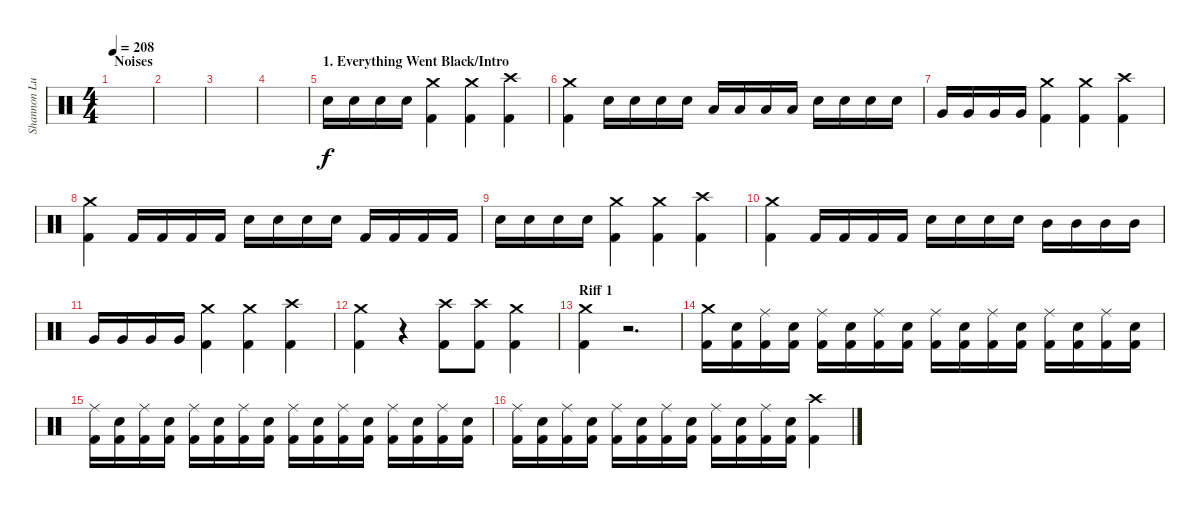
\track ("Shannon Lucas [Drums (Since 2007)]" "Shannon Lu") {instrument percussion}
\staff {score}
\articulation defaults
\ts (4 4)
\section ("" "Noises")
\tempo 208
\clef neutral
\ks c
|
|
|
|
\section ("" "1. Everything Went Black/Intro")
"Snare (hit) 2".16 "Snare (hit) 2".16 "Snare (hit) 2".16 "Snare (hit) 2".16 ("Crash medium (hit)" "Kick (hit) 2").4 ("Crash medium (hit)" "Kick (hit) 2").4 ("Crash high (hit)" "Kick (hit) 2").4 |
("Crash medium (hit)" "Kick (hit) 2").4 "Snare (hit) 2".16 "Snare (hit) 2".16 "Snare (hit) 2".16 "Snare (hit) 2".16 "Low Tom (hit)".16 "Low Tom (hit)".16 "Low Tom (hit)".16 "Low Tom (hit)".16 "Snare (hit) 2".16 "Snare (hit) 2".16 "Snare (hit) 2".16 "Snare (hit) 2".16 |
"Very Low Tom (hit)".16 "Very Low Tom (hit)".16 "Very Low Tom (hit)".16 "Very Low Tom (hit)".16 ("Crash medium (hit)" "Kick (hit) 2").4 ("Crash medium (hit)" "Kick (hit) 2").4 ("Crash high (hit)" "Kick (hit) 2").4 |
("Crash medium (hit)" "Kick (hit) 2").4 "Kick (hit) 2".16 "Kick (hit) 2".16 "Kick (hit) 2".16 "Kick (hit) 2".16 "Snare (hit) 2".16 "Snare (hit) 2".16 "Snare (hit) 2".16 "Snare (hit) 2".16 "Kick (hit) 2".16 "Kick (hit) 2".16 "Kick (hit) 2".16 "Kick (hit) 2".16 |
"Snare (hit) 2".16 "Snare (hit) 2".16 "Snare (hit) 2".16 "Snare (hit) 2".16 ("Crash medium (hit)" "Kick (hit) 2").4 ("Crash medium (hit)" "Kick (hit) 2").4 ("Crash high (hit)" "Kick (hit) 2").4 |
("Crash medium (hit)" "Kick (hit) 2").4 "Kick (hit) 2".16 "Kick (hit) 2".16 "Kick (hit) 2".16 "Kick (hit) 2".16 "Snare (hit) 2".16 "Snare (hit) 2".16 "Snare (hit) 2".16 "Snare (hit) 2".16 "Mid Tom (hit)".16 "Mid Tom (hit)".16 "Mid Tom (hit)".16 "Mid Tom (hit)".16 |
"Very Low Tom (hit)".16 "Very Low Tom (hit)".16 "Very Low Tom (hit)".16 "Very Low Tom (hit)".16 ("Crash medium (hit)" "Kick (hit) 2").4 ("Crash medium (hit)" "Kick (hit) 2").4 ("Crash high (hit)" "Kick (hit) 2").4 |
("Crash medium (hit)" "Kick (hit) 2").4 r.4 ("Crash high (hit)" "Kick (hit) 2").8 ("Crash high (hit)" "Kick (hit) 2").8 ("Crash medium (hit)" "Kick (hit) 2").4 |
\section ("" "Riff 1")
("Crash medium (hit)" "Kick (hit) 2").4 r.2{d} |
("Crash medium (hit)" "Kick (hit) 2").16 ("Snare (hit) 2" "Kick (hit) 2").16 ("Ride (middle)" "Kick (hit) 2").16 ("Snare (hit) 2" "Kick (hit) 2").16 ("Ride (middle)" "Kick (hit) 2").16 ("Snare (hit) 2" "Kick (hit) 2").16 ("Ride (middle)" "Kick (hit) 2").16 ("Snare (hit) 2" "Kick (hit) 2").16 ("Ride (middle)" "Kick (hit) 2").16 ("Snare (hit) 2" "Kick (hit) 2").16 ("Ride (middle)" "Kick (hit) 2").16 ("Snare (hit) 2" "Kick (hit) 2").16 ("Ride (middle)" "Kick (hit) 2").16 ("Snare (hit) 2" "Kick (hit) 2").16 ("Ride (middle)" "Kick (hit) 2").16 ("Snare (hit) 2" "Kick (hit) 2").16 |
("Ride (middle)" "Kick (hit) 2").16 ("Snare (hit) 2" "Kick (hit) 2").16 ("Ride (middle)" "Kick (hit) 2").16 ("Snare (hit) 2" "Kick (hit) 2").16 ("Ride (middle)" "Kick (hit) 2").16 ("Snare (hit) 2" "Kick (hit) 2").16 ("Ride (middle)" "Kick (hit) 2").16 ("Snare (hit) 2" "Kick (hit) 2").16 ("Ride (middle)" "Kick (hit) 2").16 ("Snare (hit) 2" "Kick (hit) 2").16 ("Ride (middle)" "Kick (hit) 2").16 ("Snare (hit) 2" "Kick (hit) 2").16 ("Ride (middle)" "Kick (hit) 2").16 ("Snare (hit) 2" "Kick (hit) 2").16 ("Ride (middle)" "Kick (hit) 2").16 ("Snare (hit) 2" "Kick (hit) 2").16 |
("Ride (middle)" "Kick (hit) 2").16 ("Snare (hit) 2" "Kick (hit) 2").16 ("Ride (middle)" "Kick (hit) 2").16 ("Snare (hit) 2" "Kick (hit) 2").16 ("Ride (middle)" "Kick (hit) 2").16 ("Snare (hit) 2" "Kick (hit) 2").16 ("Ride (middle)" "Kick (hit) 2").16 ("Snare (hit) 2" "Kick (hit) 2").16 ("Ride (middle)" "Kick (hit) 2").16 ("Snare (hit) 2" "Kick (hit) 2").16 ("Ride (middle)" "Kick (hit) 2").16 ("Snare (hit) 2" "Kick (hit) 2").16 ("Crash high (hit)" "Kick (hit) 2").4
